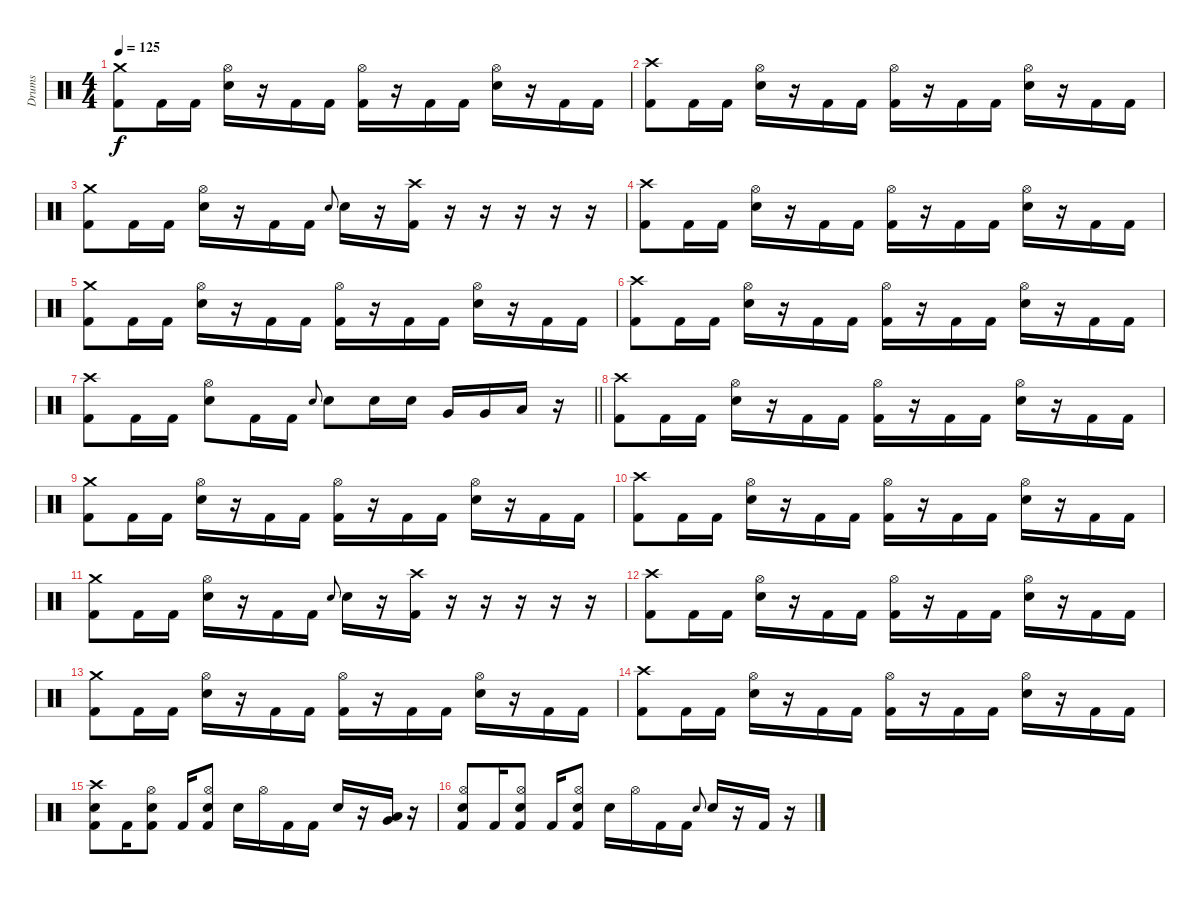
\track ("Drums" "Drums") {instrument percussion}
\staff {score}
\articulation defaults
\ts (4 4)
\tempo 125
\clef neutral
\ks c
("Crash medium (hit)" "Kick (hit) 2").8{dy f} "Kick (hit) 2".16 "Kick (hit) 2".16 ("Hi-Hat (open)" "Snare (hit) 2").16 r.16 "Kick (hit) 2".16 "Kick (hit) 2".16 ("Hi-Hat (open)" "Kick (hit) 2").16 r.16 "Kick (hit) 2".16 "Kick (hit) 2".16 ("Hi-Hat (open)" "Snare (hit) 2").16 r.16 "Kick (hit) 2".16 "Kick (hit) 2".16 |
("Crash high (hit)" "Kick (hit) 2").8 "Kick (hit) 2".16 "Kick (hit) 2".16 ("Hi-Hat (open)" "Snare (hit) 2").16 r.16 "Kick (hit) 2".16 "Kick (hit) 2".16 ("Hi-Hat (open)" "Kick (hit) 2").16 r.16 "Kick (hit) 2".16 "Kick (hit) 2".16 ("Hi-Hat (open)" "Snare (hit) 2").16 r.16 "Kick (hit) 2".16 "Kick (hit) 2".16 |
("Crash medium (hit)" "Kick (hit) 2").8 "Kick (hit) 2".16 "Kick (hit) 2".16 ("Hi-Hat (open)" "Snare (hit) 2").16 r.16 "Kick (hit) 2".16 "Kick (hit) 2".16 "Snare (hit) 2".8{gr onbeat} "Snare (hit) 2".16 r.16 ("Crash high (hit)" "Kick (hit) 2").16 r.16 r.16 r.16 r.16 r.16 |
("Crash high (hit)" "Kick (hit) 2").8 "Kick (hit) 2".16 "Kick (hit) 2".16 ("Hi-Hat (open)" "Snare (hit) 2").16 r.16 "Kick (hit) 2".16 "Kick (hit) 2".16 ("Hi-Hat (open)" "Kick (hit) 2").16 r.16 "Kick (hit) 2".16 "Kick (hit) 2".16 ("Hi-Hat (open)" "Snare (hit) 2").16 r.16 "Kick (hit) 2".16 "Kick (hit) 2".16 |
("Crash medium (hit)" "Kick (hit) 2").8 "Kick (hit) 2".16 "Kick (hit) 2".16 ("Hi-Hat (open)" "Snare (hit) 2").16 r.16 "Kick (hit) 2".16 "Kick (hit) 2".16 ("Hi-Hat (open)" "Kick (hit) 2").16 r.16 "Kick (hit) 2".16 "Kick (hit) 2".16 ("Hi-Hat (open)" "Snare (hit) 2").16 r.16 "Kick (hit) 2".16 "Kick (hit) 2".16 |
("Crash high (hit)" "Kick (hit) 2").8 "Kick (hit) 2".16 "Kick (hit) 2".16 ("Hi-Hat (open)" "Snare (hit) 2").16 r.16 "Kick (hit) 2".16 "Kick (hit) 2".16 ("Hi-Hat (open)" "Kick (hit) 2").16 r.16 "Kick (hit) 2".16 "Kick (hit) 2".16 ("Hi-Hat (open)" "Snare (hit) 2").16 r.16 "Kick (hit) 2".16 "Kick (hit) 2".16 |
\barLineRight lightlight
("Crash high (hit)" "Kick (hit) 2").8 "Kick (hit) 2".16 "Kick (hit) 2".16 ("Hi-Hat (open)" "Snare (hit) 2").8 "Kick (hit) 2".16 "Kick (hit) 2".16 "Snare (hit) 2".8{gr onbeat} "Snare (hit) 2".8 "Snare (hit) 2".16 "Snare (hit) 2".16 "Very Low Tom (hit)".16 "Very Low Tom (hit)".16 "Low Floor Tom (hit)".16 r.16 |
("Crash high (hit)" "Kick (hit) 2").8 "Kick (hit) 2".16 "Kick (hit) 2".16 ("Hi-Hat (open)" "Snare (hit) 2").16 r.16 "Kick (hit) 2".16 "Kick (hit) 2".16 ("Hi-Hat (open)" "Kick (hit) 2").16 r.16 "Kick (hit) 2".16 "Kick (hit) 2".16 ("Hi-Hat (open)" "Snare (hit) 2").16 r.16 "Kick (hit) 2".16 "Kick (hit) 2".16 |
("Crash medium (hit)" "Kick (hit) 2").8 "Kick (hit) 2".16 "Kick (hit) 2".16 ("Hi-Hat (open)" "Snare (hit) 2").16 r.16 "Kick (hit) 2".16 "Kick (hit) 2".16 ("Hi-Hat (open)" "Kick (hit) 2").16 r.16 "Kick (hit) 2".16 "Kick (hit) 2".16 ("Hi-Hat (open)" "Snare (hit) 2").16 r.16 "Kick (hit) 2".16 "Kick (hit) 2".16 |
("Crash high (hit)" "Kick (hit) 2").8 "Kick (hit) 2".16 "Kick (hit) 2".16 ("Hi-Hat (open)" "Snare (hit) 2").16 r.16 "Kick (hit) 2".16 "Kick (hit) 2".16 ("Hi-Hat (open)" "Kick (hit) 2").16 r.16 "Kick (hit) 2".16 "Kick (hit) 2".16 ("Hi-Hat (open)" "Snare (hit) 2").16 r.16 "Kick (hit) 2".16 "Kick (hit) 2".16 |
("Crash medium (hit)" "Kick (hit) 2").8 "Kick (hit) 2".16 "Kick (hit) 2".16 ("Hi-Hat (open)" "Snare (hit) 2").16 r.16 "Kick (hit) 2".16 "Kick (hit) 2".16 "Snare (hit) 2".8{gr onbeat} "Snare (hit) 2".16 r.16 ("Crash high (hit)" "Kick (hit) 2").16 r.16 r.16 r.16 r.16 r.16 |
("Crash high (hit)" "Kick (hit) 2").8 "Kick (hit) 2".16 "Kick (hit) 2".16 ("Hi-Hat (open)" "Snare (hit) 2").16 r.16 "Kick (hit) 2".16 "Kick (hit) 2".16 ("Hi-Hat (open)" "Kick (hit) 2").16 r.16 "Kick (hit) 2".16 "Kick (hit) 2".16 ("Hi-Hat (open)" "Snare (hit) 2").16 r.16 "Kick (hit) 2".16 "Kick (hit) 2".16 |
("Crash medium (hit)" "Kick (hit) 2").8 "Kick (hit) 2".16 "Kick (hit) 2".16 ("Hi-Hat (open)" "Snare (hit) 2").16 r.16 "Kick (hit) 2".16 "Kick (hit) 2".16 ("Hi-Hat (open)" "Kick (hit) 2").16 r.16 "Kick (hit) 2".16 "Kick (hit) 2".16 ("Hi-Hat (open)" "Snare (hit) 2").16 r.16 "Kick (hit) 2".16 "Kick (hit) 2".16 |
("Crash high (hit)" "Kick (hit) 2").8 "Kick (hit) 2".16 "Kick (hit) 2".16 ("Hi-Hat (open)" "Snare (hit) 2").16 r.16 "Kick (hit) 2".16 "Kick (hit) 2".16 ("Hi-Hat (open)" "Kick (hit) 2").16 r.16 "Kick (hit) 2".16 "Kick (hit) 2".16 ("Hi-Hat (open)" "Snare (hit) 2").16 r.16 "Kick (hit) 2".16 "Kick (hit) 2".16 |
("Crash high (hit)" "Snare (hit) 2" "Kick (hit) 2").8 "Kick (hit) 2".16 ("Hi-Hat (open)" "Snare (hit) 2" "Kick (hit) 2").8 "Kick (hit) 2".16 ("Hi-Hat (open)" "Snare (hit) 2" "Kick (hit) 2").8 "Snare (hit) 2".16 "Hi-Hat (open)".16 "Kick (hit) 2".16 "Kick (hit) 2".16 "Snare (hit) 2".16 r.16 ("Very Low Tom (hit)" "Low Floor Tom (hit)").16 r.16 |
("Hi-Hat (open)" "Snare (hit) 2" "Kick (hit) 2").8 "Kick (hit) 2".16 ("Hi-Hat (open)" "Snare (hit) 2" "Kick (hit) 2").8 "Kick (hit) 2".16 ("Hi-Hat (open)" "Snare (hit) 2" "Kick (hit) 2").8 "Snare (hit) 2".16 "Hi-Hat (open)".16 "Kick (hit) 2".16 "Kick (hit) 2".16 "Snare (hit) 2".8{gr onbeat} "Snare (hit) 2".16 r.16 "Kick (hit) 2".16 r.16
